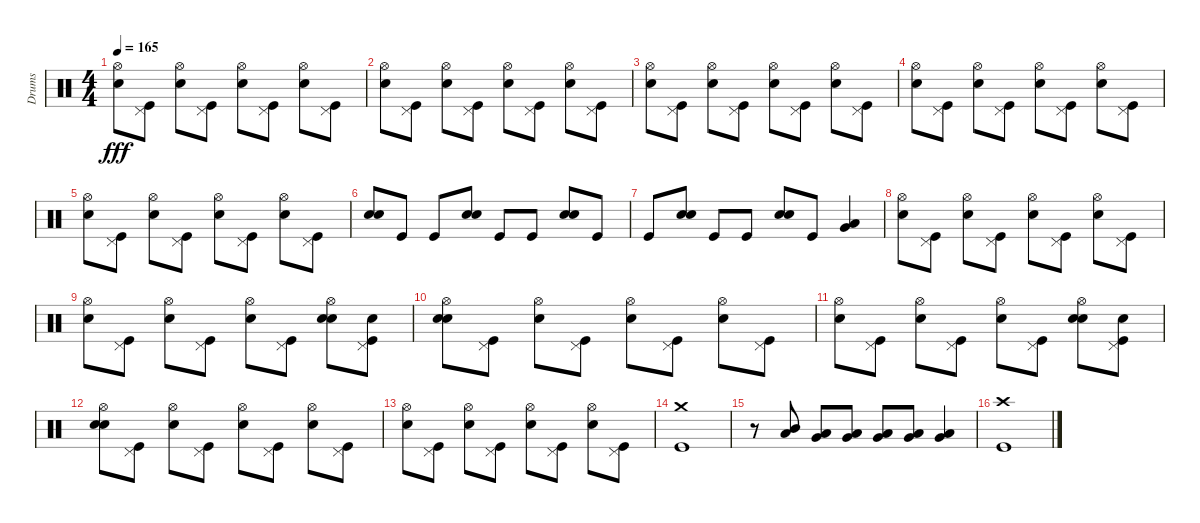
\track ("Drums" "Drums") {instrument percussion}
\staff {score}
\articulation defaults
\ts (4 4)
\tempo 165
\clef neutral
\ks c
("Hi-Hat (open)" "Snare (hit) 2").8{dy fff} ("Pedal Hi-Hat (hit)" "Kick (hit)").8 ("Hi-Hat (open)" "Snare (hit) 2").8 ("Pedal Hi-Hat (hit)" "Kick (hit)").8 ("Hi-Hat (open)" "Snare (hit) 2").8 ("Pedal Hi-Hat (hit)" "Kick (hit)").8 ("Hi-Hat (open)" "Snare (hit) 2").8 ("Pedal Hi-Hat (hit)" "Kick (hit)").8 |
("Hi-Hat (open)" "Snare (hit) 2").8 ("Pedal Hi-Hat (hit)" "Kick (hit)").8 ("Hi-Hat (open)" "Snare (hit) 2").8 ("Pedal Hi-Hat (hit)" "Kick (hit)").8 ("Hi-Hat (open)" "Snare (hit) 2").8 ("Pedal Hi-Hat (hit)" "Kick (hit)").8 ("Hi-Hat (open)" "Snare (hit) 2").8 ("Pedal Hi-Hat (hit)" "Kick (hit)").8 |
("Hi-Hat (open)" "Snare (hit) 2").8 ("Pedal Hi-Hat (hit)" "Kick (hit)").8 ("Hi-Hat (open)" "Snare (hit) 2").8 ("Pedal Hi-Hat (hit)" "Kick (hit)").8 ("Hi-Hat (open)" "Snare (hit) 2").8 ("Pedal Hi-Hat (hit)" "Kick (hit)").8 ("Hi-Hat (open)" "Snare (hit) 2").8 ("Pedal Hi-Hat (hit)" "Kick (hit)").8 |
("Hi-Hat (open)" "Snare (hit) 2").8 ("Pedal Hi-Hat (hit)" "Kick (hit)").8 ("Hi-Hat (open)" "Snare (hit) 2").8 ("Pedal Hi-Hat (hit)" "Kick (hit)").8 ("Hi-Hat (open)" "Snare (hit) 2").8 ("Pedal Hi-Hat (hit)" "Kick (hit)").8 ("Hi-Hat (open)" "Snare (hit) 2").8 ("Pedal Hi-Hat (hit)" "Kick (hit)").8 |
("Hi-Hat (open)" "Snare (hit) 2").8 ("Pedal Hi-Hat (hit)" "Kick (hit)").8 ("Hi-Hat (open)" "Snare (hit) 2").8 ("Pedal Hi-Hat (hit)" "Kick (hit)").8 ("Hi-Hat (open)" "Snare (hit) 2").8 ("Pedal Hi-Hat (hit)" "Kick (hit)").8 ("Hi-Hat (open)" "Snare (hit) 2").8 ("Pedal Hi-Hat (hit)" "Kick (hit)").8 |
("Electric Snare (hit)" "Snare (hit) 2").8 "Kick (hit)".8 "Kick (hit)".8 ("Electric Snare (hit)" "Snare (hit) 2").8 "Kick (hit)".8 "Kick (hit)".8 ("Electric Snare (hit)" "Snare (hit) 2").8 "Kick (hit)".8 |
"Kick (hit)".8 ("Electric Snare (hit)" "Snare (hit) 2").8 "Kick (hit)".8 "Kick (hit)".8 ("Electric Snare (hit)" "Snare (hit) 2").8 "Kick (hit)".8 ("Very Low Tom (hit)" "Low Floor Tom (hit)").4 |
("Hi-Hat (open)" "Snare (hit) 2").8 ("Pedal Hi-Hat (hit)" "Kick (hit)").8 ("Hi-Hat (open)" "Snare (hit) 2").8 ("Pedal Hi-Hat (hit)" "Kick (hit)").8 ("Hi-Hat (open)" "Snare (hit) 2").8 ("Pedal Hi-Hat (hit)" "Kick (hit)").8 ("Hi-Hat (open)" "Snare (hit) 2").8 ("Pedal Hi-Hat (hit)" "Kick (hit)").8 |
("Hi-Hat (open)" "Snare (hit) 2").8 ("Pedal Hi-Hat (hit)" "Kick (hit)").8 ("Hi-Hat (open)" "Snare (hit) 2").8 ("Pedal Hi-Hat (hit)" "Kick (hit)").8 ("Hi-Hat (open)" "Snare (hit) 2").8 ("Pedal Hi-Hat (hit)" "Kick (hit)").8 ("Hi-Hat (open)" "Hand Clap (hit)" "Snare (hit) 2").8 ("Pedal Hi-Hat (hit)" "Hand Clap (hit)" "Kick (hit)").8 |
("Hi-Hat (open)" "Hand Clap (hit)" "Snare (hit) 2").8 ("Pedal Hi-Hat (hit)" "Kick (hit)").8 ("Hi-Hat (open)" "Snare (hit) 2").8 ("Pedal Hi-Hat (hit)" "Kick (hit)").8 ("Hi-Hat (open)" "Snare (hit) 2").8 ("Pedal Hi-Hat (hit)" "Kick (hit)").8 ("Hi-Hat (open)" "Snare (hit) 2").8 ("Pedal Hi-Hat (hit)" "Kick (hit)").8 |
("Hi-Hat (open)" "Snare (hit) 2").8 ("Pedal Hi-Hat (hit)" "Kick (hit)").8 ("Hi-Hat (open)" "Snare (hit) 2").8 ("Pedal Hi-Hat (hit)" "Kick (hit)").8 ("Hi-Hat (open)" "Snare (hit) 2").8 ("Pedal Hi-Hat (hit)" "Kick (hit)").8 ("Hi-Hat (open)" "Hand Clap (hit)" "Snare (hit) 2").8 ("Pedal Hi-Hat (hit)" "Hand Clap (hit)" "Kick (hit)").8 |
("Hi-Hat (open)" "Hand Clap (hit)" "Snare (hit) 2").8 ("Pedal Hi-Hat (hit)" "Kick (hit)").8 ("Hi-Hat (open)" "Snare (hit) 2").8 ("Pedal Hi-Hat (hit)" "Kick (hit)").8 ("Hi-Hat (open)" "Snare (hit) 2").8 ("Pedal Hi-Hat (hit)" "Kick (hit)").8 ("Hi-Hat (open)" "Snare (hit) 2").8 ("Pedal Hi-Hat (hit)" "Kick (hit)").8 |
("Hi-Hat (open)" "Snare (hit) 2").8 ("Pedal Hi-Hat (hit)" "Kick (hit)").8 ("Hi-Hat (open)" "Snare (hit) 2").8 ("Pedal Hi-Hat (hit)" "Kick (hit)").8 ("Hi-Hat (open)" "Snare (hit) 2").8 ("Pedal Hi-Hat (hit)" "Kick (hit)").8 ("Hi-Hat (open)" "Snare (hit) 2").8 ("Pedal Hi-Hat (hit)" "Kick (hit)").8 |
("Crash medium (hit)" "Kick (hit)").1 |
r.8 ("Mid Tom (hit)" "Low Tom (hit)").8 ("Low Tom (hit)" "Very Low Tom (hit)").8 ("Low Tom (hit)" "Very Low Tom (hit)").8 ("Low Tom (hit)" "Very Low Tom (hit)").8 ("Very Low Tom (hit)" "Low Floor Tom (hit)").8 ("Very Low Tom (hit)" "Low Floor Tom (hit)").4 |
("Crash high (hit)" "Kick (hit)").1
